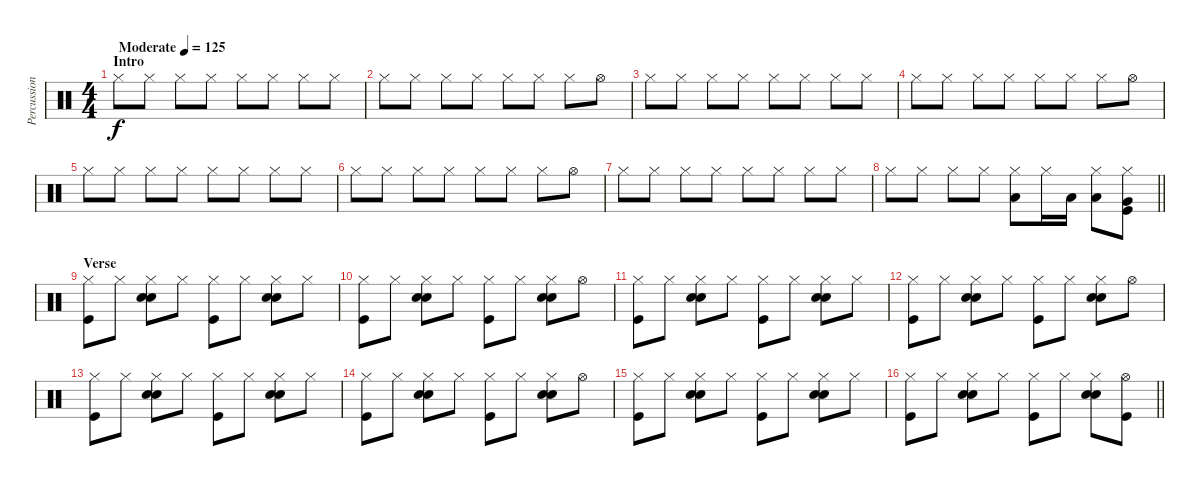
\track ("Percussion" "Percussion") {instrument percussion}
\staff {score}
\articulation defaults
\ts (4 4)
\section ("" "Intro")
\tempo (125 "Moderate")
\clef neutral
\ks c "Hi-Hat (closed)".8{dy f} "Hi-Hat (closed)".8 "Hi-Hat (closed)".8 "Hi-Hat (closed)".8 "Hi-Hat (closed)".8 "Hi-Hat (closed)".8 "Hi-Hat (closed)".8 "Hi-Hat (closed)".8
|
"Hi-Hat (closed)".8 "Hi-Hat (closed)".8 "Hi-Hat (closed)".8 "Hi-Hat (closed)".8 "Hi-Hat (closed)".8 "Hi-Hat (closed)".8 "Hi-Hat (closed)".8 "Hi-Hat (open)".8 |
"Hi-Hat (closed)".8 "Hi-Hat (closed)".8 "Hi-Hat (closed)".8 "Hi-Hat (closed)".8 "Hi-Hat (closed)".8 "Hi-Hat (closed)".8 "Hi-Hat (closed)".8 "Hi-Hat (closed)".8 |
"Hi-Hat (closed)".8 "Hi-Hat (closed)".8 "Hi-Hat (closed)".8 "Hi-Hat (closed)".8 "Hi-Hat (closed)".8 "Hi-Hat (closed)".8 "Hi-Hat (closed)".8 "Hi-Hat (open)".8 |
"Hi-Hat (closed)".8 "Hi-Hat (closed)".8 "Hi-Hat (closed)".8 "Hi-Hat (closed)".8 "Hi-Hat (closed)".8 "Hi-Hat (closed)".8 "Hi-Hat (closed)".8 "Hi-Hat (closed)".8 |
"Hi-Hat (closed)".8 "Hi-Hat (closed)".8 "Hi-Hat (closed)".8 "Hi-Hat (closed)".8 "Hi-Hat (closed)".8 "Hi-Hat (closed)".8 "Hi-Hat (closed)".8 "Hi-Hat (open)".8 |
"Hi-Hat (closed)".8 "Hi-Hat (closed)".8 "Hi-Hat (closed)".8 "Hi-Hat (closed)".8 "Hi-Hat (closed)".8 "Hi-Hat (closed)".8 "Hi-Hat (closed)".8 "Hi-Hat (closed)".8 |
\barLineRight lightlight "Hi-Hat (closed)".8 "Hi-Hat (closed)".8 "Hi-Hat (closed)".8 "Hi-Hat (closed)".8
("Hi-Hat (closed)" "Low Tom (hit)").8 "Hi-Hat (closed)".16 "Low Tom (hit)".16 ("Hi-Hat (closed)" "Low Tom (hit)").8 ("Hi-Hat (closed)" "Very Low Tom (hit)" "Kick (hit)").8 |
\section ("" "Verse")
("Hi-Hat (closed)" "Kick (hit)").8 "Hi-Hat (closed)".8 ("Hi-Hat (closed)" "Hand Clap (hit)" "Snare (hit) 2").8 "Hi-Hat (closed)".8 ("Hi-Hat (closed)" "Kick (hit)").8 "Hi-Hat (closed)".8 ("Hi-Hat (closed)" "Hand Clap (hit)" "Snare (hit) 2").8 "Hi-Hat (closed)".8 |
("Hi-Hat (closed)" "Kick (hit)").8 "Hi-Hat (closed)".8 ("Hi-Hat (closed)" "Hand Clap (hit)" "Snare (hit) 2").8 "Hi-Hat (closed)".8 ("Hi-Hat (closed)" "Kick (hit)").8 "Hi-Hat (closed)".8 ("Hi-Hat (closed)" "Hand Clap (hit)" "Snare (hit) 2").8 "Hi-Hat (open)".8 |
("Hi-Hat (closed)" "Kick (hit)").8 "Hi-Hat (closed)".8 ("Hi-Hat (closed)" "Hand Clap (hit)" "Snare (hit) 2").8 "Hi-Hat (closed)".8 ("Hi-Hat (closed)" "Kick (hit)").8 "Hi-Hat (closed)".8 ("Hi-Hat (closed)" "Hand Clap (hit)" "Snare (hit) 2").8 "Hi-Hat (closed)".8 |
("Hi-Hat (closed)" "Kick (hit)").8 "Hi-Hat (closed)".8 ("Hi-Hat (closed)" "Hand Clap (hit)" "Snare (hit) 2").8 "Hi-Hat (closed)".8 ("Hi-Hat (closed)" "Kick (hit)").8 "Hi-Hat (closed)".8 ("Hi-Hat (closed)" "Hand Clap (hit)" "Snare (hit) 2").8 "Hi-Hat (open)".8 |
("Hi-Hat (closed)" "Kick (hit)").8 "Hi-Hat (closed)".8 ("Hi-Hat (closed)" "Hand Clap (hit)" "Snare (hit) 2").8 "Hi-Hat (closed)".8 ("Hi-Hat (closed)" "Kick (hit)").8 "Hi-Hat (closed)".8 ("Hi-Hat (closed)" "Hand Clap (hit)" "Snare (hit) 2").8 "Hi-Hat (closed)".8 |
("Hi-Hat (closed)" "Kick (hit)").8 "Hi-Hat (closed)".8 ("Hi-Hat (closed)" "Hand Clap (hit)" "Snare (hit) 2").8 "Hi-Hat (closed)".8 ("Hi-Hat (closed)" "Kick (hit)").8 "Hi-Hat (closed)".8 ("Hi-Hat (closed)" "Hand Clap (hit)" "Snare (hit) 2").8 "Hi-Hat (open)".8 |
("Hi-Hat (closed)" "Kick (hit)").8 "Hi-Hat (closed)".8 ("Hi-Hat (closed)" "Hand Clap (hit)" "Snare (hit) 2").8 "Hi-Hat (closed)".8 ("Hi-Hat (closed)" "Kick (hit)").8 "Hi-Hat (closed)".8 ("Hi-Hat (closed)" "Hand Clap (hit)" "Snare (hit) 2").8 "Hi-Hat (closed)".8 |
\barLineRight lightlight
("Hi-Hat (closed)" "Kick (hit)").8 "Hi-Hat (closed)".8 ("Hi-Hat (closed)" "Hand Clap (hit)" "Snare (hit) 2").8 "Hi-Hat (closed)".8 ("Hi-Hat (closed)" "Kick (hit)").8 "Hi-Hat (closed)".8 ("Hi-Hat (closed)" "Hand Clap (hit)" "Snare (hit) 2").8 ("Hi-Hat (open)" "Kick (hit)").8
